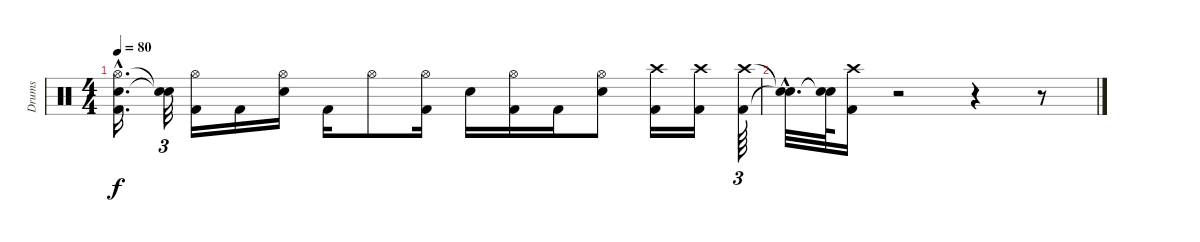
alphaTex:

\track ("Drums" "Drums") {instrument percussion}
\staff {score}
\articulation defaults
\ts (4 4)
\tempo 80
\clef neutral
\ks c
("Hi-Hat (open)"{hac} "Snare (hit)"{hac t} "Kick (hit) 2"{hac}).16{d dy f} ("Snare (hit)"{t} "Snare (hit)"{t}).32{tu (3 2)} ("Hi-Hat (open)" "Kick (hit) 2").16 "Kick (hit) 2".16 ("Hi-Hat (open)" "Electric Snare (hit)").16 "Kick (hit) 2".16 "Hi-Hat (open)".8 ("Hi-Hat (open)" "Kick (hit) 2").16 "Electric Snare (hit)".16 ("Hi-Hat (open)" "Kick (hit) 2").16 "Kick (hit) 2".16 ("Hi-Hat (open)" "Electric Snare (hit)").8 ("Crash high (hit)" "Kick (hit) 2").16 ("Crash high (hit)" "Kick (hit) 2").16 ("Crash high (hit)" "Kick (hit) 2").64{tu (3 2)} |
("Snare (hit)"{hac t} "Snare (hit)"{hac t}).32{d} ("Snare (hit)"{t} "Snare (hit)"{t}).64 ("Crash high (hit)" "Kick (hit) 2").16 r.2 r.4 r.8
